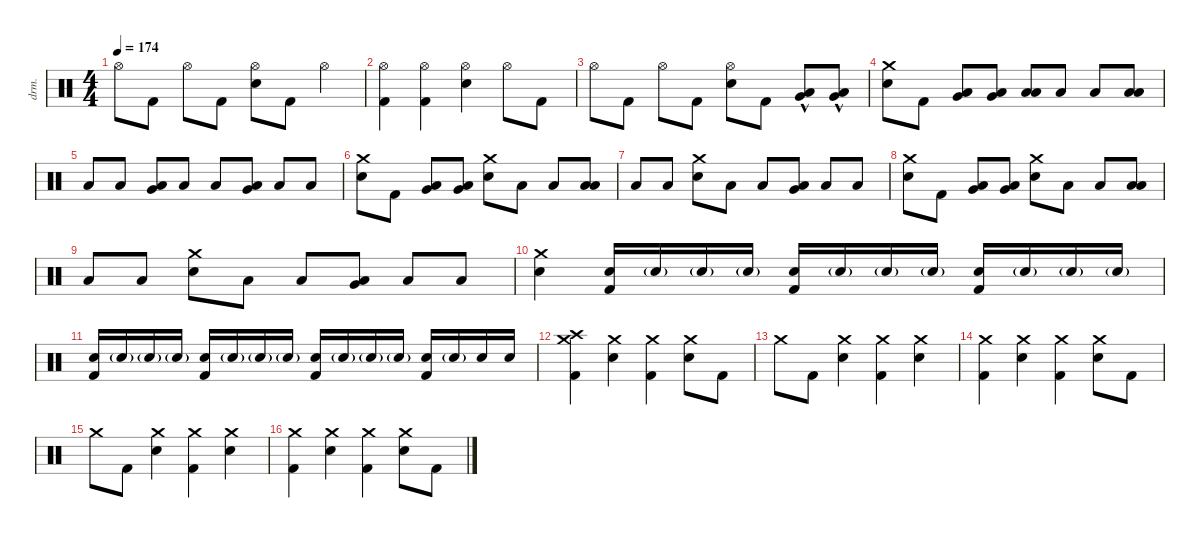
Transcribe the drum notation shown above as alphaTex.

\defaultSystemsLayout 4
\hideDynamics
\bracketExtendMode nobrackets
\track ("Ударные" "drm.") {instrument percussion}
\staff {score}
\articulation defaults
\ts (4 4)
\tempo 174
\clef neutral
\ks c "Hi-Hat (open)".8{dy f} "Kick (hit) 2".8 "Hi-Hat (open)".8 "Kick (hit) 2".8
("Hi-Hat (open)" "Snare (hit) 2").8 "Kick (hit) 2".8 "Hi-Hat (open)".4 |
("Hi-Hat (open)" "Kick (hit) 2").4 ("Hi-Hat (open)" "Kick (hit) 2").4 ("Hi-Hat (open)" "Snare (hit) 2").4 "Hi-Hat (open)".8 "Kick (hit) 2".8 |
"Hi-Hat (open)".8 "Kick (hit) 2".8 "Hi-Hat (open)".8 "Kick (hit) 2".8 ("Hi-Hat (open)" "Snare (hit) 2").8 "Kick (hit) 2".8 ("Low Floor Tom (hit)"{hac} "Very Low Tom (hit)"{hac}).8 ("Low Floor Tom (hit)"{hac} "Very Low Tom (hit)"{hac}).8 |
("Crash medium (hit)" "Snare (hit) 2").8 "Kick (hit) 2".8 ("Low Floor Tom (hit)" "Very Low Tom (hit)").8 ("Low Floor Tom (hit)" "Very Low Tom (hit)").8 ("Low Floor Tom (hit)" "Low Tom (hit)").8 "Low Floor Tom (hit)".8 "Low Floor Tom (hit)".8 ("Low Floor Tom (hit)" "Low Tom (hit)").8 |
"Low Floor Tom (hit)".8 "Low Floor Tom (hit)".8 ("Low Floor Tom (hit)" "Very Low Tom (hit)").8 "Low Floor Tom (hit)".8 "Low Floor Tom (hit)".8 ("Low Floor Tom (hit)" "Very Low Tom (hit)").8 "Low Floor Tom (hit)".8 "Low Floor Tom (hit)".8 |
("Crash medium (hit)" "Snare (hit) 2").8 "Kick (hit) 2".8 ("Low Floor Tom (hit)" "Very Low Tom (hit)").8 ("Low Floor Tom (hit)" "Very Low Tom (hit)").8 ("Crash medium (hit)" "Snare (hit) 2").8 "Low Floor Tom (hit)".8 "Low Floor Tom (hit)".8 ("Low Floor Tom (hit)" "Low Tom (hit)").8 |
"Low Floor Tom (hit)".8 "Low Floor Tom (hit)".8 ("Crash medium (hit)" "Snare (hit) 2").8 "Low Floor Tom (hit)".8 "Low Floor Tom (hit)".8 ("Low Floor Tom (hit)" "Very Low Tom (hit)").8 "Low Floor Tom (hit)".8 "Low Floor Tom (hit)".8 |
("Crash medium (hit)" "Snare (hit) 2").8 "Kick (hit) 2".8 ("Low Floor Tom (hit)" "Very Low Tom (hit)").8 ("Low Floor Tom (hit)" "Very Low Tom (hit)").8 ("Crash medium (hit)" "Snare (hit) 2").8 "Low Floor Tom (hit)".8 "Low Floor Tom (hit)".8 ("Low Floor Tom (hit)" "Low Tom (hit)").8 |
"Low Floor Tom (hit)".8 "Low Floor Tom (hit)".8 ("Crash medium (hit)" "Snare (hit) 2").8 "Low Floor Tom (hit)".8 "Low Floor Tom (hit)".8 ("Low Floor Tom (hit)" "Very Low Tom (hit)").8 "Low Floor Tom (hit)".8 "Low Floor Tom (hit)".8 |
("Crash medium (hit)" "Snare (hit) 2").4 ("Snare (hit) 2" "Kick (hit) 2").16 "Snare (hit) 2"{g}.16{dy mf} "Snare (hit) 2"{g}.16 "Snare (hit) 2"{g}.16 ("Snare (hit) 2" "Kick (hit) 2").16{dy f} "Snare (hit) 2"{g}.16{dy mf} "Snare (hit) 2"{g}.16 "Snare (hit) 2"{g}.16 ("Snare (hit) 2" "Kick (hit) 2").16{dy f} "Snare (hit) 2"{g}.16{dy mf} "Snare (hit) 2"{g}.16 "Snare (hit) 2"{g}.16 |
("Snare (hit) 2" "Kick (hit) 2").16{dy f} "Snare (hit) 2"{g}.16{dy mf} "Snare (hit) 2"{g}.16 "Snare (hit) 2"{g}.16 ("Snare (hit) 2" "Kick (hit) 2").16{dy f} "Snare (hit) 2"{g}.16{dy mf} "Snare (hit) 2"{g}.16 "Snare (hit) 2"{g}.16 ("Snare (hit) 2" "Kick (hit) 2").16{dy f} "Snare (hit) 2"{g}.16{dy mf} "Snare (hit) 2"{g}.16 "Snare (hit) 2"{g}.16 ("Snare (hit) 2" "Kick (hit) 2").16{dy f} "Snare (hit) 2"{g}.16{dy mf} "Snare (hit) 2".16{dy f} "Snare (hit) 2".16 |
("Crash medium (hit)" "Crash high (hit)" "Kick (hit) 2").4 ("Crash medium (hit)" "Snare (hit) 2").4 ("Crash medium (hit)" "Kick (hit) 2").4 ("Crash medium (hit)" "Snare (hit) 2").8 "Kick (hit) 2".8 |
"Crash medium (hit)".8 "Kick (hit) 2".8 ("Crash medium (hit)" "Snare (hit) 2").4 ("Crash medium (hit)" "Kick (hit) 2").4 ("Crash medium (hit)" "Snare (hit) 2").4 |
("Crash medium (hit)" "Kick (hit) 2").4 ("Crash medium (hit)" "Snare (hit) 2").4 ("Crash medium (hit)" "Kick (hit) 2").4 ("Crash medium (hit)" "Snare (hit) 2").8 "Kick (hit) 2".8 |
"Crash medium (hit)".8 "Kick (hit) 2".8 ("Crash medium (hit)" "Snare (hit) 2").4 ("Crash medium (hit)" "Kick (hit) 2").4 ("Crash medium (hit)" "Snare (hit) 2").4 |
("Crash medium (hit)" "Kick (hit) 2").4 ("Crash medium (hit)" "Snare (hit) 2").4 ("Crash medium (hit)" "Kick (hit) 2").4 ("Crash medium (hit)" "Snare (hit) 2").8 "Kick (hit) 2".8
